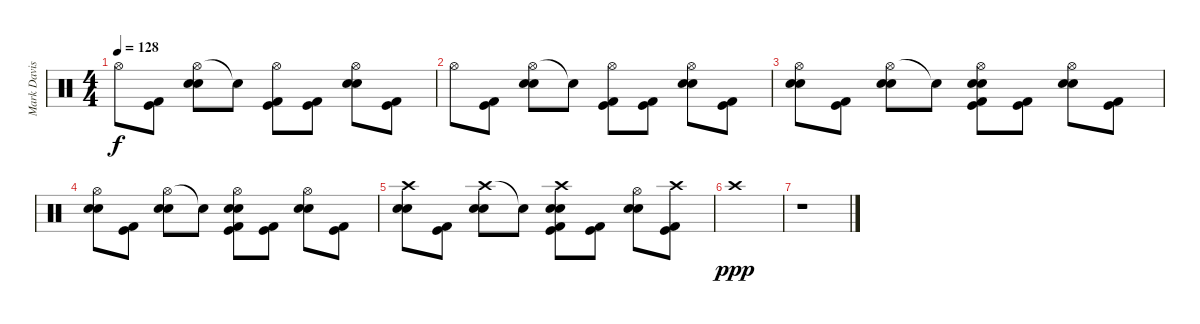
\track ("Mark Davis (drums)" "Mark Davis") {instrument percussion}
\staff {score}
\articulation defaults
\ts (4 4)
\tempo 128
\clef neutral
\ks c "Hi-Hat (open)".8{dy f}
("Kick (hit)" "Kick (hit) 2").8 ("Hi-Hat (open)" "Snare (hit) 2" "Electric Snare (hit)").8 "Snare (hit)"{t}.8 ("Hi-Hat (open)" "Kick (hit)" "Kick (hit) 2").8 ("Kick (hit)" "Kick (hit) 2").8 ("Hi-Hat (open)" "Snare (hit) 2" "Electric Snare (hit)").8 ("Kick (hit)" "Kick (hit) 2").8 |
"Hi-Hat (open)".8 ("Kick (hit)" "Kick (hit) 2").8 ("Hi-Hat (open)" "Snare (hit) 2" "Electric Snare (hit)").8 "Snare (hit)"{t}.8 ("Hi-Hat (open)" "Kick (hit)" "Kick (hit) 2").8 ("Kick (hit)" "Kick (hit) 2").8 ("Hi-Hat (open)" "Snare (hit) 2" "Electric Snare (hit)").8 ("Kick (hit)" "Kick (hit) 2").8 |
("Hi-Hat (open)" "Snare (hit) 2" "Electric Snare (hit)").8 ("Kick (hit)" "Kick (hit) 2").8 ("Hi-Hat (open)" "Snare (hit) 2" "Electric Snare (hit)").8 "Snare (hit)"{t}.8 ("Hi-Hat (open)" "Snare (hit) 2" "Electric Snare (hit)" "Kick (hit)" "Kick (hit) 2").8 ("Kick (hit)" "Kick (hit) 2").8 ("Hi-Hat (open)" "Snare (hit) 2" "Electric Snare (hit)").8 ("Kick (hit)" "Kick (hit) 2").8 |
("Hi-Hat (open)" "Snare (hit) 2" "Electric Snare (hit)").8 ("Kick (hit)" "Kick (hit) 2").8 ("Hi-Hat (open)" "Snare (hit) 2" "Electric Snare (hit)").8 "Snare (hit)"{t}.8 ("Hi-Hat (open)" "Snare (hit) 2" "Electric Snare (hit)" "Kick (hit)" "Kick (hit) 2").8 ("Kick (hit)" "Kick (hit) 2").8 ("Hi-Hat (open)" "Snare (hit) 2" "Electric Snare (hit)").8 ("Kick (hit)" "Kick (hit) 2").8 |
("Crash high (hit)" "Snare (hit) 2" "Electric Snare (hit)").8 ("Kick (hit)" "Kick (hit) 2").8 ("Crash high (hit)" "Snare (hit) 2" "Electric Snare (hit)").8 "Snare (hit)"{t}.8 ("Crash high (hit)" "Snare (hit) 2" "Electric Snare (hit)" "Kick (hit)" "Kick (hit) 2").8 ("Kick (hit)" "Kick (hit) 2").8 ("Hi-Hat (open)" "Snare (hit) 2" "Electric Snare (hit)").8 ("Crash high (hit)" "Kick (hit)" "Kick (hit) 2").8 |
"Crash high (hit)".1{dy ppp} |
r.1
